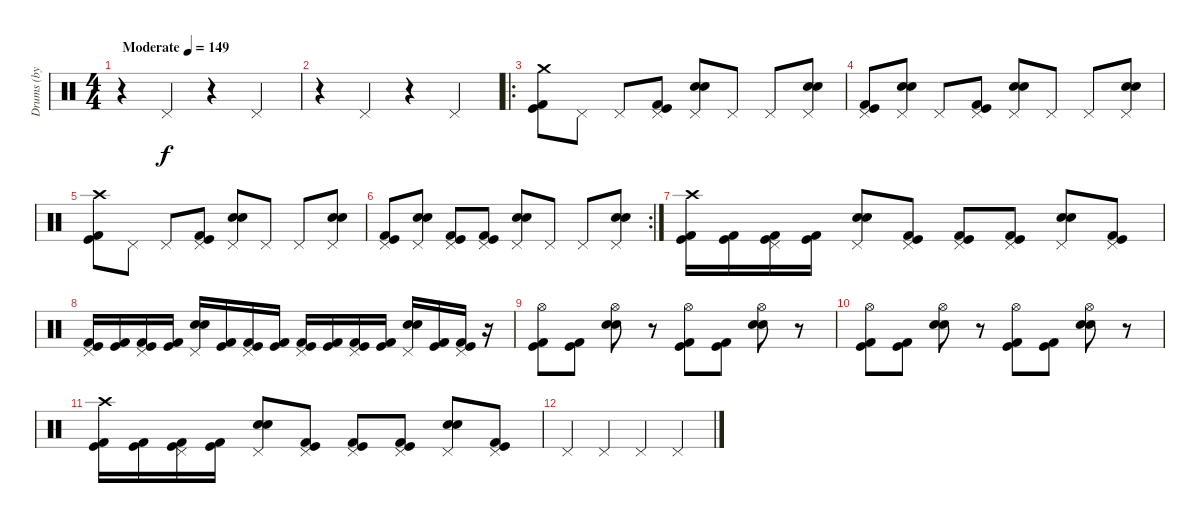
\track ("Drums (by me, not be useable) Midi" "Drums (by ") {instrument percussion}
\staff {score}
\articulation defaults
\ts (4 4)
\tempo (149 "Moderate")
\clef neutral
\ks c
r.4{dy f} "Pedal Hi-Hat (hit)".4 r.4 "Pedal Hi-Hat (hit)".4 |
r.4 "Pedal Hi-Hat (hit)".4 r.4 "Pedal Hi-Hat (hit)".4 |
\ro
("Crash medium (hit)" "Kick (hit) 2" "Kick (hit)").8 "Pedal Hi-Hat (hit)".8 "Pedal Hi-Hat (hit)".8 ("Pedal Hi-Hat (hit)" "Kick (hit) 2" "Kick (hit)").8 ("Pedal Hi-Hat (hit)" "Electric Snare (hit)" "Electric Snare (hit)").8 "Pedal Hi-Hat (hit)".8 "Pedal Hi-Hat (hit)".8 ("Pedal Hi-Hat (hit)" "Electric Snare (hit)" "Electric Snare (hit)").8 |
("Pedal Hi-Hat (hit)" "Kick (hit) 2" "Kick (hit)").8 ("Pedal Hi-Hat (hit)" "Electric Snare (hit)" "Electric Snare (hit)").8 "Pedal Hi-Hat (hit)".8 ("Pedal Hi-Hat (hit)" "Kick (hit) 2" "Kick (hit)").8 ("Pedal Hi-Hat (hit)" "Electric Snare (hit)" "Electric Snare (hit)").8 "Pedal Hi-Hat (hit)".8 "Pedal Hi-Hat (hit)".8 ("Pedal Hi-Hat (hit)" "Electric Snare (hit)" "Electric Snare (hit)").8 |
("Crash high (hit)" "Kick (hit) 2" "Kick (hit)").8 "Pedal Hi-Hat (hit)".8 "Pedal Hi-Hat (hit)".8 ("Pedal Hi-Hat (hit)" "Kick (hit) 2" "Kick (hit)").8 ("Pedal Hi-Hat (hit)" "Electric Snare (hit)" "Electric Snare (hit)").8 "Pedal Hi-Hat (hit)".8 "Pedal Hi-Hat (hit)".8 ("Pedal Hi-Hat (hit)" "Electric Snare (hit)" "Electric Snare (hit)").8 |
\rc 2
("Pedal Hi-Hat (hit)" "Kick (hit) 2" "Kick (hit)").8 ("Pedal Hi-Hat (hit)" "Electric Snare (hit)" "Electric Snare (hit)").8 ("Pedal Hi-Hat (hit)" "Kick (hit) 2" "Kick (hit)").8 ("Pedal Hi-Hat (hit)" "Kick (hit) 2" "Kick (hit)").8 ("Pedal Hi-Hat (hit)" "Electric Snare (hit)" "Electric Snare (hit)").8 "Pedal Hi-Hat (hit)".8 "Pedal Hi-Hat (hit)".8 ("Pedal Hi-Hat (hit)" "Electric Snare (hit)" "Electric Snare (hit)").8 |
("Crash high (hit)" "Kick (hit) 2" "Kick (hit)").16 ("Kick (hit) 2" "Kick (hit)").16 ("Pedal Hi-Hat (hit)" "Kick (hit) 2" "Kick (hit)").16 ("Kick (hit) 2" "Kick (hit)").16 ("Pedal Hi-Hat (hit)" "Electric Snare (hit)" "Electric Snare (hit)").8 ("Pedal Hi-Hat (hit)" "Kick (hit) 2" "Kick (hit)").8 ("Pedal Hi-Hat (hit)" "Kick (hit) 2" "Kick (hit)").8 ("Pedal Hi-Hat (hit)" "Kick (hit) 2" "Kick (hit)").8 ("Pedal Hi-Hat (hit)" "Electric Snare (hit)" "Electric Snare (hit)").8 ("Pedal Hi-Hat (hit)" "Kick (hit) 2" "Kick (hit)").8 |
("Pedal Hi-Hat (hit)" "Kick (hit) 2" "Kick (hit)").16 ("Kick (hit) 2" "Kick (hit)").16 ("Pedal Hi-Hat (hit)" "Kick (hit) 2" "Kick (hit)").16 ("Kick (hit) 2" "Kick (hit)").16 ("Pedal Hi-Hat (hit)" "Electric Snare (hit)" "Electric Snare (hit)").16 ("Kick (hit) 2" "Kick (hit)").16 ("Pedal Hi-Hat (hit)" "Kick (hit) 2" "Kick (hit)").16 ("Kick (hit) 2" "Kick (hit)").16 ("Pedal Hi-Hat (hit)" "Kick (hit) 2" "Kick (hit)").16 ("Kick (hit) 2" "Kick (hit)").16 ("Pedal Hi-Hat (hit)" "Kick (hit) 2" "Kick (hit)").16 ("Kick (hit)" "Kick (hit) 2").16 ("Pedal Hi-Hat (hit)" "Electric Snare (hit)" "Electric Snare (hit)").16 ("Kick (hit) 2" "Kick (hit)").16 ("Pedal Hi-Hat (hit)" "Kick (hit) 2" "Kick (hit)").16 r.16 |
("Hi-Hat (open)" "Kick (hit) 2" "Kick (hit)").8 ("Kick (hit) 2" "Kick (hit)").8 ("Hi-Hat (open)" "Electric Snare (hit)" "Electric Snare (hit)").8 r.8 ("Hi-Hat (open)" "Kick (hit) 2" "Kick (hit)").8 ("Kick (hit) 2" "Kick (hit)").8 ("Hi-Hat (open)" "Electric Snare (hit)" "Electric Snare (hit)").8 r.8 |
("Hi-Hat (open)" "Kick (hit) 2" "Kick (hit)").8 ("Kick (hit) 2" "Kick (hit)").8 ("Hi-Hat (open)" "Electric Snare (hit)" "Electric Snare (hit)").8 r.8 ("Hi-Hat (open)" "Kick (hit) 2" "Kick (hit)").8 ("Kick (hit) 2" "Kick (hit)").8 ("Hi-Hat (open)" "Electric Snare (hit)" "Electric Snare (hit)").8 r.8 |
("Crash high (hit)" "Kick (hit) 2" "Kick (hit)").16 ("Kick (hit) 2" "Kick (hit)").16 ("Pedal Hi-Hat (hit)" "Kick (hit) 2" "Kick (hit)").16 ("Kick (hit) 2" "Kick (hit)").16 ("Pedal Hi-Hat (hit)" "Electric Snare (hit)" "Electric Snare (hit)").8 ("Pedal Hi-Hat (hit)" "Kick (hit) 2" "Kick (hit)").8 ("Pedal Hi-Hat (hit)" "Kick (hit) 2" "Kick (hit)").8 ("Pedal Hi-Hat (hit)" "Kick (hit) 2" "Kick (hit)").8 ("Pedal Hi-Hat (hit)" "Electric Snare (hit)" "Electric Snare (hit)").8 ("Pedal Hi-Hat (hit)" "Kick (hit) 2" "Kick (hit)").8 |
"Pedal Hi-Hat (hit)".4 "Pedal Hi-Hat (hit)".4 "Pedal Hi-Hat (hit)".4 "Pedal Hi-Hat (hit)".4
